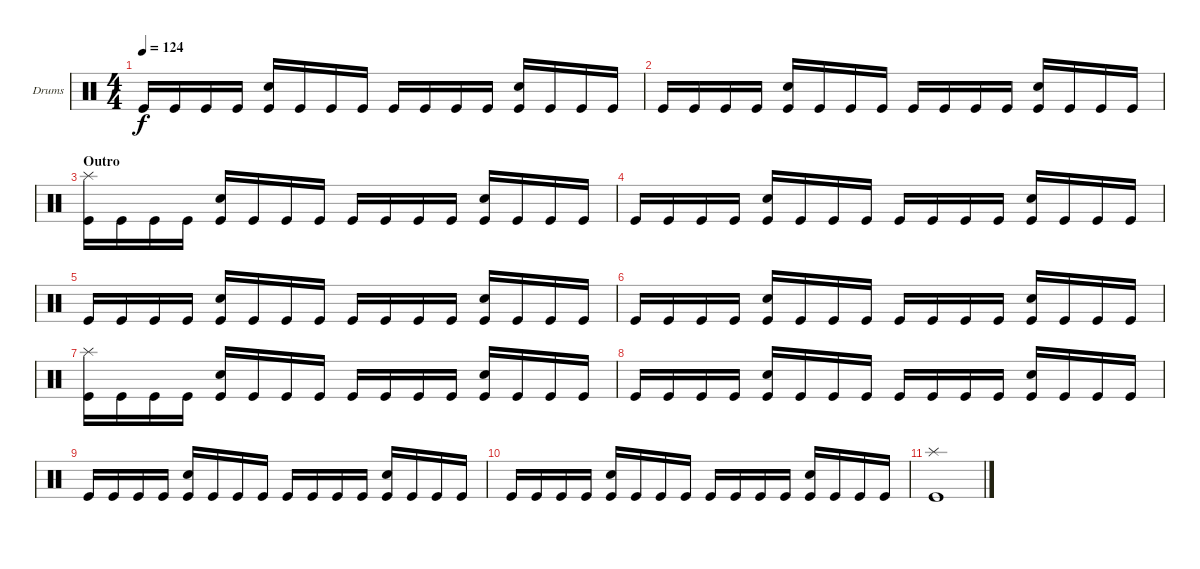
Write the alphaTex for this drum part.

\bracketExtendMode groupsimilarinstruments
\firstSystemTrackNameOrientation horizontal
\otherSystemsTrackNameOrientation horizontal
\track ("Drumkit" "Drums") {instrument percussion}
\staff {score}
\articulation defaults
\ts (4 4)
\tempo 124
\clef neutral
\ks c "Kick (hit)".16{dy f} "Kick (hit)".16 "Kick (hit)".16 "Kick (hit)".16
("Snare (hit) 2" "Kick (hit)").16 "Kick (hit)".16 "Kick (hit)".16 "Kick (hit)".16 "Kick (hit)".16 "Kick (hit)".16 "Kick (hit)".16 "Kick (hit)".16 ("Snare (hit) 2" "Kick (hit)").16 "Kick (hit)".16 "Kick (hit)".16 "Kick (hit)".16 |
"Kick (hit)".16 "Kick (hit)".16 "Kick (hit)".16 "Kick (hit)".16 ("Snare (hit) 2" "Kick (hit)").16 "Kick (hit)".16 "Kick (hit)".16 "Kick (hit)".16 "Kick (hit)".16 "Kick (hit)".16 "Kick (hit)".16 "Kick (hit)".16 ("Snare (hit) 2" "Kick (hit)").16 "Kick (hit)".16 "Kick (hit)".16 "Kick (hit)".16 |
\section ("" "Outro")
("Kick (hit)" "Splash (hit)").16 "Kick (hit)".16 "Kick (hit)".16 "Kick (hit)".16 ("Snare (hit) 2" "Kick (hit)").16 "Kick (hit)".16 "Kick (hit)".16 "Kick (hit)".16 "Kick (hit)".16 "Kick (hit)".16 "Kick (hit)".16 "Kick (hit)".16 ("Snare (hit) 2" "Kick (hit)").16 "Kick (hit)".16 "Kick (hit)".16 "Kick (hit)".16 |
"Kick (hit)".16 "Kick (hit)".16 "Kick (hit)".16 "Kick (hit)".16 ("Snare (hit) 2" "Kick (hit)").16 "Kick (hit)".16 "Kick (hit)".16 "Kick (hit)".16 "Kick (hit)".16 "Kick (hit)".16 "Kick (hit)".16 "Kick (hit)".16 ("Snare (hit) 2" "Kick (hit)").16 "Kick (hit)".16 "Kick (hit)".16 "Kick (hit)".16 |
"Kick (hit)".16 "Kick (hit)".16 "Kick (hit)".16 "Kick (hit)".16 ("Snare (hit) 2" "Kick (hit)").16 "Kick (hit)".16 "Kick (hit)".16 "Kick (hit)".16 "Kick (hit)".16 "Kick (hit)".16 "Kick (hit)".16 "Kick (hit)".16 ("Snare (hit) 2" "Kick (hit)").16 "Kick (hit)".16 "Kick (hit)".16 "Kick (hit)".16 |
"Kick (hit)".16 "Kick (hit)".16 "Kick (hit)".16 "Kick (hit)".16 ("Snare (hit) 2" "Kick (hit)").16 "Kick (hit)".16 "Kick (hit)".16 "Kick (hit)".16 "Kick (hit)".16 "Kick (hit)".16 "Kick (hit)".16 "Kick (hit)".16 ("Snare (hit) 2" "Kick (hit)").16 "Kick (hit)".16 "Kick (hit)".16 "Kick (hit)".16 |
("Kick (hit)" "Splash (hit)").16 "Kick (hit)".16 "Kick (hit)".16 "Kick (hit)".16 ("Snare (hit) 2" "Kick (hit)").16 "Kick (hit)".16 "Kick (hit)".16 "Kick (hit)".16 "Kick (hit)".16 "Kick (hit)".16 "Kick (hit)".16 "Kick (hit)".16 ("Snare (hit) 2" "Kick (hit)").16 "Kick (hit)".16 "Kick (hit)".16 "Kick (hit)".16 |
"Kick (hit)".16 "Kick (hit)".16 "Kick (hit)".16 "Kick (hit)".16 ("Snare (hit) 2" "Kick (hit)").16 "Kick (hit)".16 "Kick (hit)".16 "Kick (hit)".16 "Kick (hit)".16 "Kick (hit)".16 "Kick (hit)".16 "Kick (hit)".16 ("Snare (hit) 2" "Kick (hit)").16 "Kick (hit)".16 "Kick (hit)".16 "Kick (hit)".16 |
"Kick (hit)".16 "Kick (hit)".16 "Kick (hit)".16 "Kick (hit)".16 ("Snare (hit) 2" "Kick (hit)").16 "Kick (hit)".16 "Kick (hit)".16 "Kick (hit)".16 "Kick (hit)".16 "Kick (hit)".16 "Kick (hit)".16 "Kick (hit)".16 ("Snare (hit) 2" "Kick (hit)").16 "Kick (hit)".16 "Kick (hit)".16 "Kick (hit)".16 |
"Kick (hit)".16 "Kick (hit)".16 "Kick (hit)".16 "Kick (hit)".16 ("Snare (hit) 2" "Kick (hit)").16 "Kick (hit)".16 "Kick (hit)".16 "Kick (hit)".16 "Kick (hit)".16 "Kick (hit)".16 "Kick (hit)".16 "Kick (hit)".16 ("Snare (hit) 2" "Kick (hit)").16 "Kick (hit)".16 "Kick (hit)".16 "Kick (hit)".16 |
("Kick (hit)" "Splash (hit)").1
